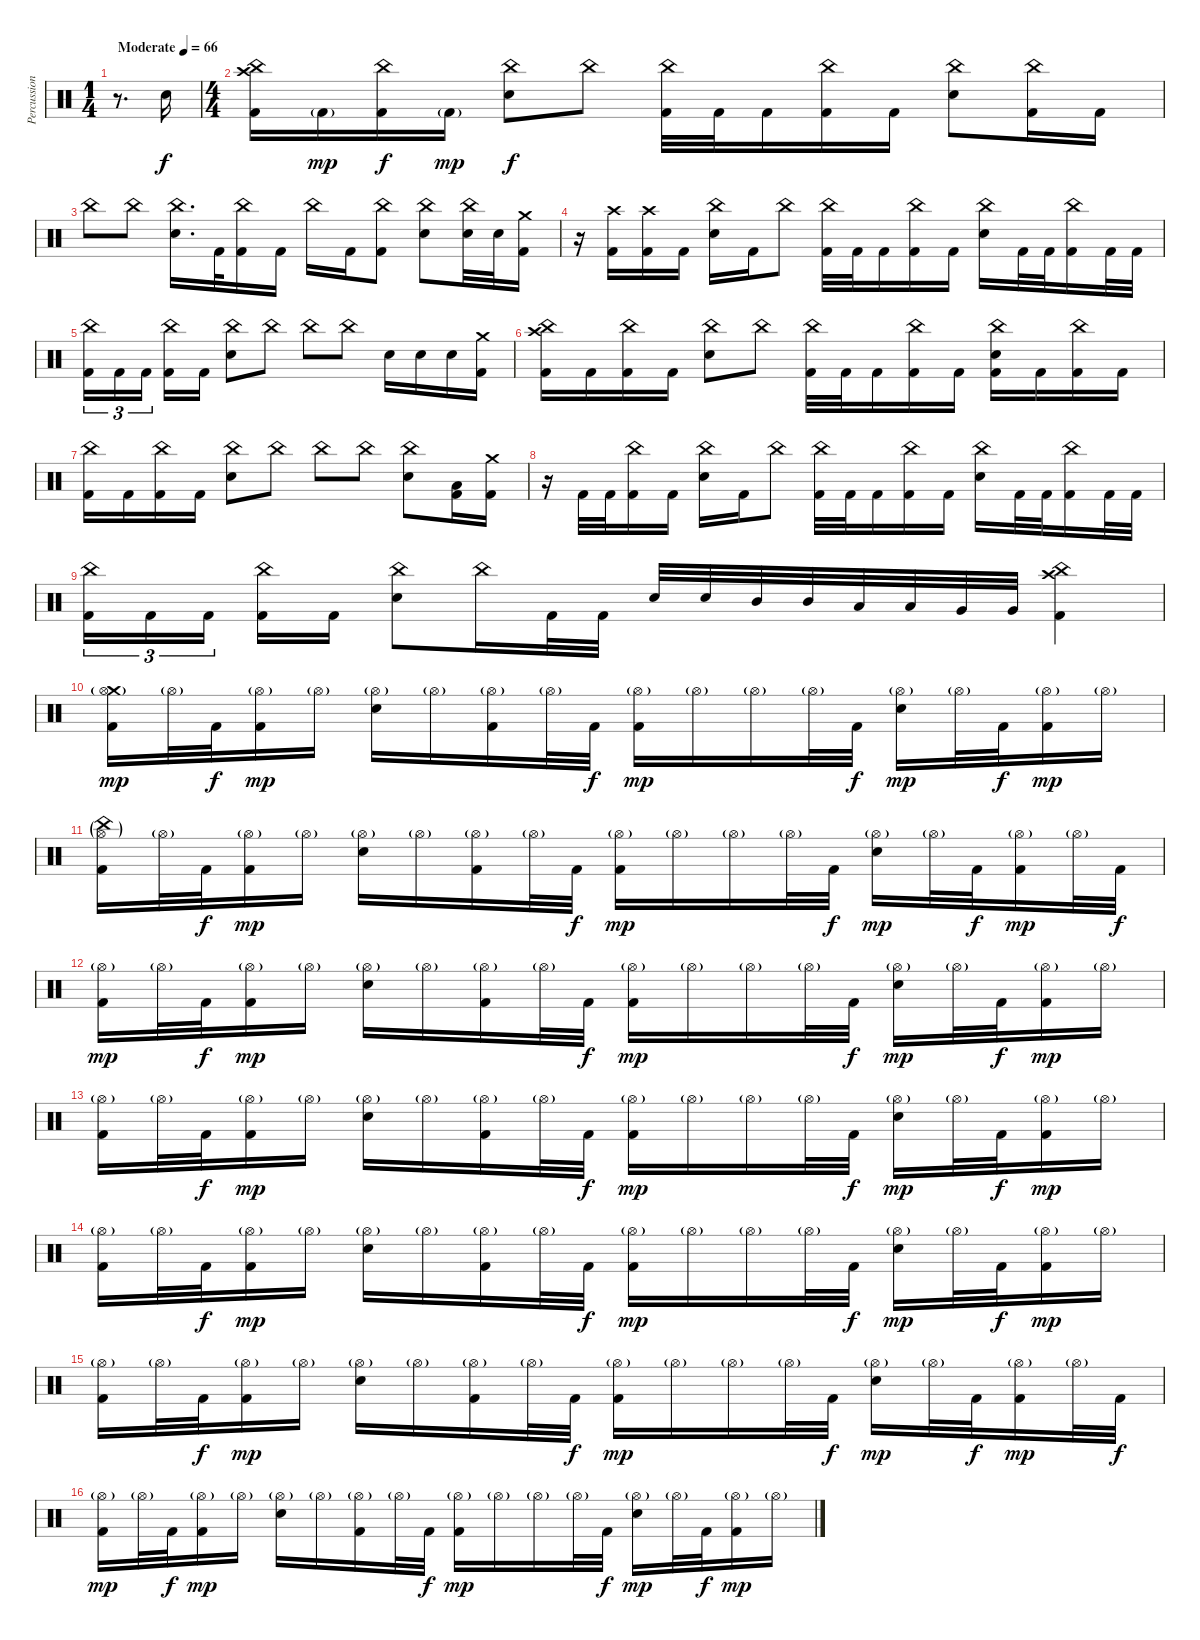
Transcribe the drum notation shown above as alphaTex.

\track ("Percussion" "Percussion") {instrument percussion}
\staff {score}
\articulation defaults
\ts (1 4)
\tempo (66 "Moderate")
\clef neutral
\ks c
r.8{d dy f} "Electric Snare (hit)".16 |
\ts (4 4)
("China (hit)" "Crash high (hit)" "Kick (hit) 2").16 "Kick (hit) 2"{g}.16{dy mp} ("China (hit)" "Kick (hit) 2").16{dy f} "Kick (hit) 2"{g}.16{dy mp} ("China (hit)" "Electric Snare (hit)").8{dy f} "China (hit)".8 ("China (hit)" "Kick (hit) 2").32 "Kick (hit) 2".32 "Kick (hit) 2".16 ("China (hit)" "Kick (hit) 2").16 "Kick (hit) 2".16 ("China (hit)" "Electric Snare (hit)").8 ("China (hit)" "Kick (hit) 2").16 "Kick (hit) 2".16 |
"China (hit)".8 "China (hit)".8 ("China (hit)" "Electric Snare (hit)").16{d} "Kick (hit) 2".32 ("China (hit)" "Kick (hit) 2").16 "Kick (hit) 2".16 "China (hit)".16 "Kick (hit) 2".16 ("China (hit)" "Kick (hit) 2").8 ("China (hit)" "Electric Snare (hit)").8 ("China (hit)" "Electric Snare (hit)").32 "Electric Snare (hit)".32 ("Crash medium (hit)" "Kick (hit) 2").16 |
r.16 ("Crash high (hit)" "Kick (hit) 2").16 ("Crash high (hit)" "Kick (hit) 2").16 "Kick (hit) 2".16 ("China (hit)" "Electric Snare (hit)").16 "Kick (hit) 2".16 "China (hit)".8 ("China (hit)" "Kick (hit) 2").32 "Kick (hit) 2".32 "Kick (hit) 2".16 ("China (hit)" "Kick (hit) 2").16 "Kick (hit) 2".16 ("China (hit)" "Electric Snare (hit)").16 "Kick (hit) 2".32 "Kick (hit) 2".32 ("China (hit)" "Kick (hit) 2").16 "Kick (hit) 2".32 "Kick (hit) 2".32 |
("China (hit)" "Kick (hit) 2").16{tu (3 2)} "Kick (hit) 2".16{tu (3 2)} "Kick (hit) 2".16{tu (3 2) beam splitsecondary} ("China (hit)" "Kick (hit) 2").16 "Kick (hit) 2".16 ("China (hit)" "Electric Snare (hit)").8 "China (hit)".8 "China (hit)".8 "China (hit)".8 "Electric Snare (hit)".16 "Electric Snare (hit)".16 "Electric Snare (hit)".16 ("Crash medium (hit)" "Kick (hit) 2").16 |
("China (hit)" "Crash high (hit)" "Kick (hit) 2").16 "Kick (hit) 2".16 ("China (hit)" "Kick (hit) 2").16 "Kick (hit) 2".16 ("China (hit)" "Electric Snare (hit)").8 "China (hit)".8 ("China (hit)" "Kick (hit) 2").32 "Kick (hit) 2".32 "Kick (hit) 2".16 ("China (hit)" "Kick (hit) 2").16 "Kick (hit) 2".16 ("China (hit)" "Electric Snare (hit)" "Kick (hit) 2").16 "Kick (hit) 2".16 ("China (hit)" "Kick (hit) 2").16 "Kick (hit) 2".16 |
("China (hit)" "Kick (hit) 2").16 "Kick (hit) 2".16 ("China (hit)" "Kick (hit) 2").16 "Kick (hit) 2".16 ("China (hit)" "Electric Snare (hit)").8 "China (hit)".8 "China (hit)".8 "China (hit)".8 ("China (hit)" "Electric Snare (hit)").8 ("Low Floor Tom (hit)" "Kick (hit) 2").16 ("Crash medium (hit)" "Kick (hit) 2").16 |
r.16 "Kick (hit) 2".32 "Kick (hit) 2".32 ("China (hit)" "Kick (hit) 2").16 "Kick (hit) 2".16 ("China (hit)" "Electric Snare (hit)").16 "Kick (hit) 2".16 "China (hit)".8 ("China (hit)" "Kick (hit) 2").32 "Kick (hit) 2".32 "Kick (hit) 2".16 ("China (hit)" "Kick (hit) 2").16 "Kick (hit) 2".16 ("China (hit)" "Electric Snare (hit)").16 "Kick (hit) 2".32 "Kick (hit) 2".32 ("China (hit)" "Kick (hit) 2").16 "Kick (hit) 2".32 "Kick (hit) 2".32 |
("China (hit)" "Kick (hit) 2").16{tu (3 2)} "Kick (hit) 2".16{tu (3 2)} "Kick (hit) 2".16{tu (3 2) beam splitsecondary} ("China (hit)" "Kick (hit) 2").16 "Kick (hit) 2".16 ("China (hit)" "Electric Snare (hit)").8 "China (hit)".16 "Kick (hit) 2".32 "Kick (hit) 2".32 "Electric Snare (hit)".32 "Electric Snare (hit)".32 "Mid Tom (hit)".32 "Mid Tom (hit)".32 "Low Tom (hit)".32 "Low Tom (hit)".32 "Very Low Tom (hit)".32 "Very Low Tom (hit)".32 ("China (hit)" "Crash high (hit)" "Kick (hit) 2").4 |
("Crash medium (hit)"{g} "Hi-Hat (open)"{g} "Kick (hit) 2").16{dy mp} "Hi-Hat (open)"{g}.32 "Kick (hit) 2".32{dy f} ("Hi-Hat (open)"{g} "Kick (hit) 2").16{dy mp} "Hi-Hat (open)"{g}.16 ("Hi-Hat (open)"{g} "Electric Snare (hit)").16 "Hi-Hat (open)"{g}.16 ("Hi-Hat (open)"{g} "Kick (hit) 2").16 "Hi-Hat (open)"{g}.32 "Kick (hit) 2".32{dy f} ("Hi-Hat (open)"{g} "Kick (hit) 2").16{dy mp} "Hi-Hat (open)"{g}.16 "Hi-Hat (open)"{g}.16 "Hi-Hat (open)"{g}.32 "Kick (hit) 2".32{dy f} ("Hi-Hat (open)"{g} "Electric Snare (hit)").16{dy mp} "Hi-Hat (open)"{g}.32 "Kick (hit) 2".32{dy f} ("Hi-Hat (open)"{g} "Kick (hit) 2").16{dy mp} "Hi-Hat (open)"{g}.16 |
("China (hit)"{g} "Hi-Hat (open)"{g} "Kick (hit) 2").16 "Hi-Hat (open)"{g}.32 "Kick (hit) 2".32{dy f} ("Hi-Hat (open)"{g} "Kick (hit) 2").16{dy mp} "Hi-Hat (open)"{g}.16 ("Hi-Hat (open)"{g} "Electric Snare (hit)").16 "Hi-Hat (open)"{g}.16 ("Hi-Hat (open)"{g} "Kick (hit) 2").16 "Hi-Hat (open)"{g}.32 "Kick (hit) 2".32{dy f} ("Hi-Hat (open)"{g} "Kick (hit) 2").16{dy mp} "Hi-Hat (open)"{g}.16 "Hi-Hat (open)"{g}.16 "Hi-Hat (open)"{g}.32 "Kick (hit) 2".32{dy f} ("Hi-Hat (open)"{g} "Electric Snare (hit)").16{dy mp} "Hi-Hat (open)"{g}.32 "Kick (hit) 2".32{dy f} ("Hi-Hat (open)"{g} "Kick (hit) 2").16{dy mp} "Hi-Hat (open)"{g}.32 "Kick (hit) 2".32{dy f} |
("Hi-Hat (open)"{g} "Kick (hit) 2").16{dy mp} "Hi-Hat (open)"{g}.32 "Kick (hit) 2".32{dy f} ("Hi-Hat (open)"{g} "Kick (hit) 2").16{dy mp} "Hi-Hat (open)"{g}.16 ("Hi-Hat (open)"{g} "Electric Snare (hit)").16 "Hi-Hat (open)"{g}.16 ("Hi-Hat (open)"{g} "Kick (hit) 2").16 "Hi-Hat (open)"{g}.32 "Kick (hit) 2".32{dy f} ("Hi-Hat (open)"{g} "Kick (hit) 2").16{dy mp} "Hi-Hat (open)"{g}.16 "Hi-Hat (open)"{g}.16 "Hi-Hat (open)"{g}.32 "Kick (hit) 2".32{dy f} ("Hi-Hat (open)"{g} "Electric Snare (hit)").16{dy mp} "Hi-Hat (open)"{g}.32 "Kick (hit) 2".32{dy f} ("Hi-Hat (open)"{g} "Kick (hit) 2").16{dy mp} "Hi-Hat (open)"{g}.16 |
("Hi-Hat (open)"{g} "Kick (hit) 2").16 "Hi-Hat (open)"{g}.32 "Kick (hit) 2".32{dy f} ("Hi-Hat (open)"{g} "Kick (hit) 2").16{dy mp} "Hi-Hat (open)"{g}.16 ("Hi-Hat (open)"{g} "Electric Snare (hit)").16 "Hi-Hat (open)"{g}.16 ("Hi-Hat (open)"{g} "Kick (hit) 2").16 "Hi-Hat (open)"{g}.32 "Kick (hit) 2".32{dy f} ("Hi-Hat (open)"{g} "Kick (hit) 2").16{dy mp} "Hi-Hat (open)"{g}.16 "Hi-Hat (open)"{g}.16 "Hi-Hat (open)"{g}.32 "Kick (hit) 2".32{dy f} ("Hi-Hat (open)"{g} "Electric Snare (hit)").16{dy mp} "Hi-Hat (open)"{g}.32 "Kick (hit) 2".32{dy f} ("Hi-Hat (open)"{g} "Kick (hit) 2").16{dy mp} "Hi-Hat (open)"{g}.16 |
("Hi-Hat (open)"{g} "Kick (hit) 2").16 "Hi-Hat (open)"{g}.32 "Kick (hit) 2".32{dy f} ("Hi-Hat (open)"{g} "Kick (hit) 2").16{dy mp} "Hi-Hat (open)"{g}.16 ("Hi-Hat (open)"{g} "Electric Snare (hit)").16 "Hi-Hat (open)"{g}.16 ("Hi-Hat (open)"{g} "Kick (hit) 2").16 "Hi-Hat (open)"{g}.32 "Kick (hit) 2".32{dy f} ("Hi-Hat (open)"{g} "Kick (hit) 2").16{dy mp} "Hi-Hat (open)"{g}.16 "Hi-Hat (open)"{g}.16 "Hi-Hat (open)"{g}.32 "Kick (hit) 2".32{dy f} ("Hi-Hat (open)"{g} "Electric Snare (hit)").16{dy mp} "Hi-Hat (open)"{g}.32 "Kick (hit) 2".32{dy f} ("Hi-Hat (open)"{g} "Kick (hit) 2").16{dy mp} "Hi-Hat (open)"{g}.16 |
("Hi-Hat (open)"{g} "Kick (hit) 2").16 "Hi-Hat (open)"{g}.32 "Kick (hit) 2".32{dy f} ("Hi-Hat (open)"{g} "Kick (hit) 2").16{dy mp} "Hi-Hat (open)"{g}.16 ("Hi-Hat (open)"{g} "Electric Snare (hit)").16 "Hi-Hat (open)"{g}.16 ("Hi-Hat (open)"{g} "Kick (hit) 2").16 "Hi-Hat (open)"{g}.32 "Kick (hit) 2".32{dy f} ("Hi-Hat (open)"{g} "Kick (hit) 2").16{dy mp} "Hi-Hat (open)"{g}.16 "Hi-Hat (open)"{g}.16 "Hi-Hat (open)"{g}.32 "Kick (hit) 2".32{dy f} ("Hi-Hat (open)"{g} "Electric Snare (hit)").16{dy mp} "Hi-Hat (open)"{g}.32 "Kick (hit) 2".32{dy f} ("Hi-Hat (open)"{g} "Kick (hit) 2").16{dy mp} "Hi-Hat (open)"{g}.32 "Kick (hit) 2".32{dy f} |
("Hi-Hat (open)"{g} "Kick (hit) 2").16{dy mp} "Hi-Hat (open)"{g}.32 "Kick (hit) 2".32{dy f} ("Hi-Hat (open)"{g} "Kick (hit) 2").16{dy mp} "Hi-Hat (open)"{g}.16 ("Hi-Hat (open)"{g} "Electric Snare (hit)").16 "Hi-Hat (open)"{g}.16 ("Hi-Hat (open)"{g} "Kick (hit) 2").16 "Hi-Hat (open)"{g}.32 "Kick (hit) 2".32{dy f} ("Hi-Hat (open)"{g} "Kick (hit) 2").16{dy mp} "Hi-Hat (open)"{g}.16 "Hi-Hat (open)"{g}.16 "Hi-Hat (open)"{g}.32 "Kick (hit) 2".32{dy f} ("Hi-Hat (open)"{g} "Electric Snare (hit)").16{dy mp} "Hi-Hat (open)"{g}.32 "Kick (hit) 2".32{dy f} ("Hi-Hat (open)"{g} "Kick (hit) 2").16{dy mp} "Hi-Hat (open)"{g}.16
